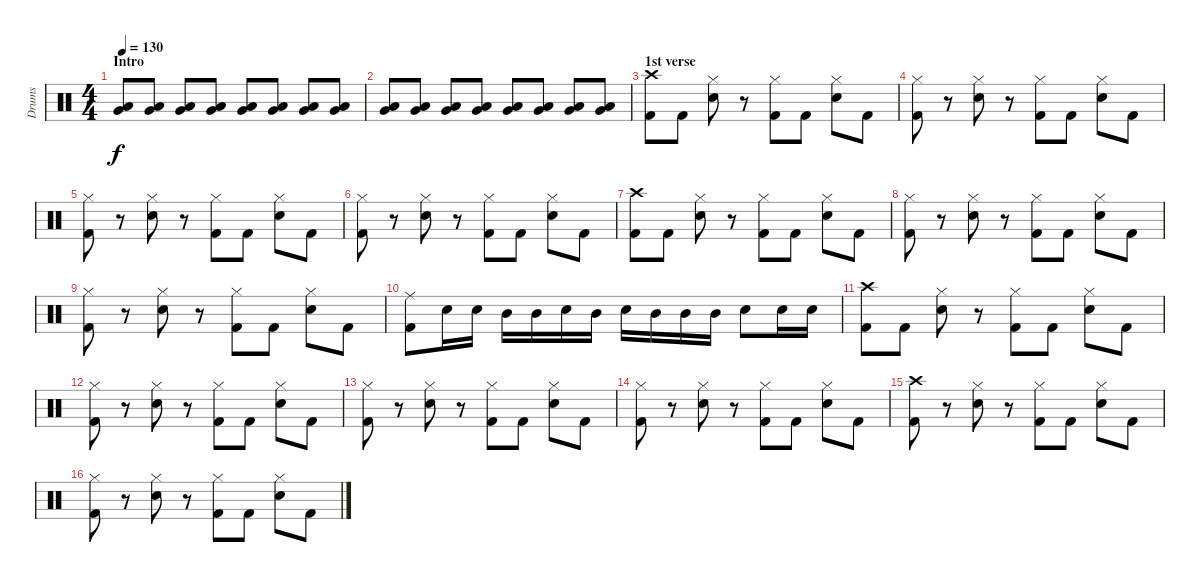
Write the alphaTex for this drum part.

\track ("Drums" "Drums") {instrument percussion}
\staff {score}
\articulation defaults
\ts (4 4)
\section ("" "Intro")
\tempo 130
\clef neutral
\ks c
("Very Low Tom (hit)" "Low Tom (hit)").8{dy f} ("Very Low Tom (hit)" "Low Tom (hit)").8 ("Very Low Tom (hit)" "Low Tom (hit)").8 ("Very Low Tom (hit)" "Low Tom (hit)").8 ("Very Low Tom (hit)" "Low Tom (hit)").8 ("Very Low Tom (hit)" "Low Tom (hit)").8 ("Very Low Tom (hit)" "Low Tom (hit)").8 ("Very Low Tom (hit)" "Low Tom (hit)").8 |
("Very Low Tom (hit)" "Low Tom (hit)").8 ("Very Low Tom (hit)" "Low Tom (hit)").8 ("Very Low Tom (hit)" "Low Tom (hit)").8 ("Very Low Tom (hit)" "Low Tom (hit)").8 ("Very Low Tom (hit)" "Low Tom (hit)").8 ("Very Low Tom (hit)" "Low Tom (hit)").8 ("Very Low Tom (hit)" "Low Tom (hit)").8 ("Very Low Tom (hit)" "Low Tom (hit)").8 |
\section ("" "1st verse")
("Crash high (hit)" "Kick (hit) 2").8 "Kick (hit) 2".8 ("Hi-Hat (closed)" "Electric Snare (hit)").8 r.8 ("Hi-Hat (closed)" "Kick (hit) 2").8 "Kick (hit) 2".8 ("Hi-Hat (closed)" "Electric Snare (hit)").8 "Kick (hit) 2".8 |
("Hi-Hat (closed)" "Kick (hit) 2").8 r.8 ("Hi-Hat (closed)" "Electric Snare (hit)").8 r.8 ("Hi-Hat (closed)" "Kick (hit) 2").8 "Kick (hit) 2".8 ("Hi-Hat (closed)" "Electric Snare (hit)").8 "Kick (hit) 2".8 |
("Hi-Hat (closed)" "Kick (hit) 2").8 r.8 ("Hi-Hat (closed)" "Electric Snare (hit)").8 r.8 ("Hi-Hat (closed)" "Kick (hit) 2").8 "Kick (hit) 2".8 ("Hi-Hat (closed)" "Electric Snare (hit)").8 "Kick (hit) 2".8 |
("Hi-Hat (closed)" "Kick (hit) 2").8 r.8 ("Hi-Hat (closed)" "Electric Snare (hit)").8 r.8 ("Hi-Hat (closed)" "Kick (hit) 2").8 "Kick (hit) 2".8 ("Hi-Hat (closed)" "Electric Snare (hit)").8 "Kick (hit) 2".8 |
("Crash high (hit)" "Kick (hit) 2").8 "Kick (hit) 2".8 ("Hi-Hat (closed)" "Electric Snare (hit)").8 r.8 ("Hi-Hat (closed)" "Kick (hit) 2").8 "Kick (hit) 2".8 ("Hi-Hat (closed)" "Electric Snare (hit)").8 "Kick (hit) 2".8 |
("Hi-Hat (closed)" "Kick (hit) 2").8 r.8 ("Hi-Hat (closed)" "Electric Snare (hit)").8 r.8 ("Hi-Hat (closed)" "Kick (hit) 2").8 "Kick (hit) 2".8 ("Hi-Hat (closed)" "Electric Snare (hit)").8 "Kick (hit) 2".8 |
("Hi-Hat (closed)" "Kick (hit) 2").8 r.8 ("Hi-Hat (closed)" "Electric Snare (hit)").8 r.8 ("Hi-Hat (closed)" "Kick (hit) 2").8 "Kick (hit) 2".8 ("Hi-Hat (closed)" "Electric Snare (hit)").8 "Kick (hit) 2".8 |
("Ride (middle)" "Kick (hit) 2").8 "Electric Snare (hit)".16 "Electric Snare (hit)".16 "Mid Tom (hit)".16 "Mid Tom (hit)".16 "Electric Snare (hit)".16 "Mid Tom (hit)".16 "Electric Snare (hit)".16 "Mid Tom (hit)".16 "Mid Tom (hit)".16 "Mid Tom (hit)".16 "Electric Snare (hit)".8 "Electric Snare (hit)".16 "Electric Snare (hit)".16 |
("Crash high (hit)" "Kick (hit) 2").8 "Kick (hit) 2".8 ("Hi-Hat (closed)" "Electric Snare (hit)").8 r.8 ("Hi-Hat (closed)" "Kick (hit) 2").8 "Kick (hit) 2".8 ("Hi-Hat (closed)" "Electric Snare (hit)").8 "Kick (hit) 2".8 |
("Hi-Hat (closed)" "Kick (hit) 2").8 r.8 ("Hi-Hat (closed)" "Electric Snare (hit)").8 r.8 ("Hi-Hat (closed)" "Kick (hit) 2").8 "Kick (hit) 2".8 ("Hi-Hat (closed)" "Electric Snare (hit)").8 "Kick (hit) 2".8 |
("Hi-Hat (closed)" "Kick (hit) 2").8 r.8 ("Hi-Hat (closed)" "Electric Snare (hit)").8 r.8 ("Hi-Hat (closed)" "Kick (hit) 2").8 "Kick (hit) 2".8 ("Hi-Hat (closed)" "Electric Snare (hit)").8 "Kick (hit) 2".8 |
("Hi-Hat (closed)" "Kick (hit) 2").8 r.8 ("Hi-Hat (closed)" "Electric Snare (hit)").8 r.8 ("Hi-Hat (closed)" "Kick (hit) 2").8 "Kick (hit) 2".8 ("Hi-Hat (closed)" "Electric Snare (hit)").8 "Kick (hit) 2".8 |
("Crash high (hit)" "Kick (hit) 2").8 r.8 ("Hi-Hat (closed)" "Electric Snare (hit)").8 r.8 ("Hi-Hat (closed)" "Kick (hit) 2").8 "Kick (hit) 2".8 ("Hi-Hat (closed)" "Electric Snare (hit)").8 "Kick (hit) 2".8 |
("Hi-Hat (closed)" "Kick (hit) 2").8 r.8 ("Hi-Hat (closed)" "Electric Snare (hit)").8 r.8 ("Hi-Hat (closed)" "Kick (hit) 2").8 "Kick (hit) 2".8 ("Hi-Hat (closed)" "Electric Snare (hit)").8 "Kick (hit) 2".8
